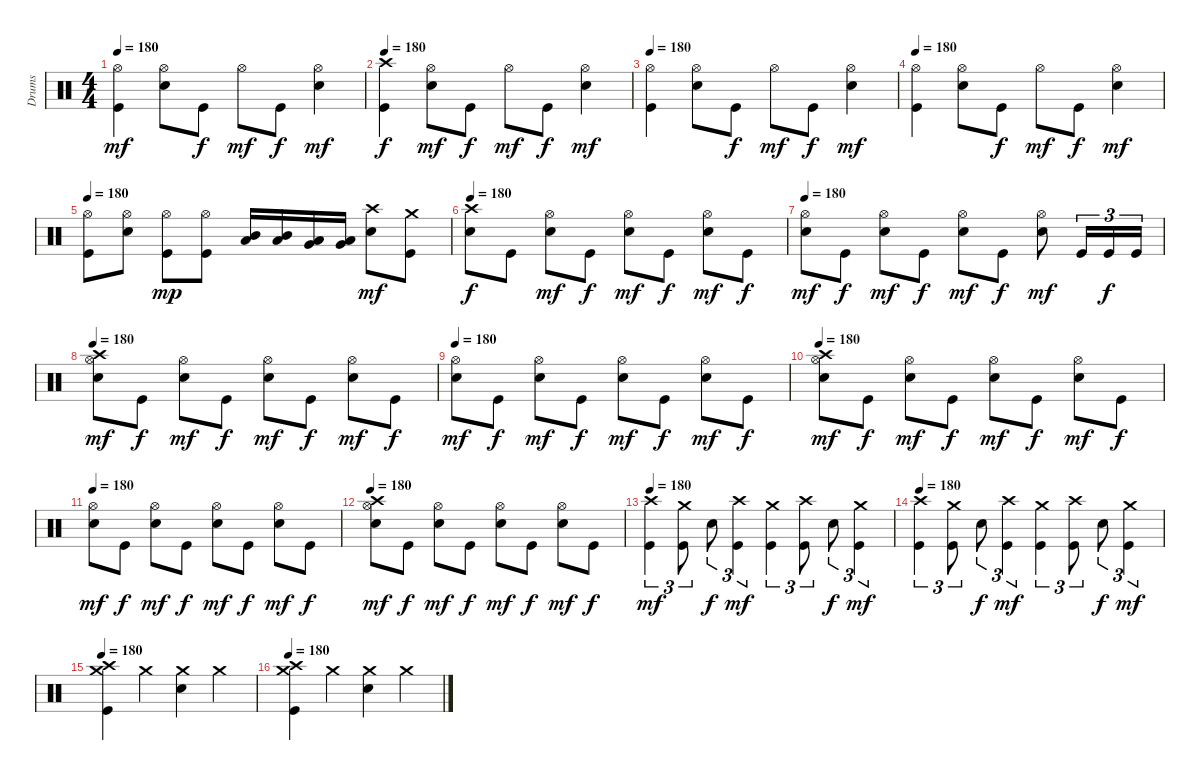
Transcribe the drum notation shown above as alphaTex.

\track ("Drums" "Drums") {instrument percussion}
\staff {score}
\articulation defaults
\ts (4 4)
\tempo 180
\clef neutral
\ks c
("Kick (hit)" "Hi-Hat (open)").4{dy mf} ("Electric Snare (hit)" "Hi-Hat (open)").8 "Kick (hit)".8{dy f} "Hi-Hat (open)".8{dy mf} "Kick (hit)".8{dy f} ("Electric Snare (hit)" "Hi-Hat (open)").4{dy mf} |
\tempo 180
("Kick (hit)" "Crash high (hit)").4{dy f} ("Electric Snare (hit)" "Hi-Hat (open)").8{dy mf} "Kick (hit)".8{dy f} "Hi-Hat (open)".8{dy mf} "Kick (hit)".8{dy f} ("Electric Snare (hit)" "Hi-Hat (open)").4{dy mf} |
\tempo 180
("Kick (hit)" "Hi-Hat (open)").4 ("Electric Snare (hit)" "Hi-Hat (open)").8 "Kick (hit)".8{dy f} "Hi-Hat (open)".8{dy mf} "Kick (hit)".8{dy f} ("Electric Snare (hit)" "Hi-Hat (open)").4{dy mf} |
\tempo 180
("Kick (hit)" "Hi-Hat (open)").4 ("Electric Snare (hit)" "Hi-Hat (open)").8 "Kick (hit)".8{dy f} "Hi-Hat (open)".8{dy mf} "Kick (hit)".8{dy f} ("Electric Snare (hit)" "Hi-Hat (open)").4{dy mf} |
\tempo 180
("Kick (hit)" "Hi-Hat (open)").8 ("Electric Snare (hit)" "Hi-Hat (open)").8 ("Kick (hit)" "Hi-Hat (open)").8{dy mp} ("Kick (hit)" "Hi-Hat (open)").8 ("Low Tom (hit)" "Mid Tom (hit)").16 ("Low Tom (hit)" "Mid Tom (hit)").16 ("Very Low Tom (hit)" "Low Tom (hit)").16 ("Very Low Tom (hit)" "Low Tom (hit)").16 ("Electric Snare (hit)" "Crash high (hit)").8{dy mf} ("Kick (hit)" "Crash medium (hit)").8 |
\tempo 180
("Electric Snare (hit)" "Crash high (hit)").8{dy f} "Kick (hit)".8 ("Electric Snare (hit)" "Hi-Hat (open)").8{dy mf} "Kick (hit)".8{dy f} ("Electric Snare (hit)" "Hi-Hat (open)").8{dy mf} "Kick (hit)".8{dy f} ("Electric Snare (hit)" "Hi-Hat (open)").8{dy mf} "Kick (hit)".8{dy f} |
\tempo 180
("Electric Snare (hit)" "Hi-Hat (open)").8{dy mf} "Kick (hit)".8{dy f} ("Electric Snare (hit)" "Hi-Hat (open)").8{dy mf} "Kick (hit)".8{dy f} ("Electric Snare (hit)" "Hi-Hat (open)").8{dy mf} "Kick (hit)".8{dy f} ("Electric Snare (hit)" "Hi-Hat (open)").8{dy mf} "Kick (hit)".16{tu (3 2)} "Kick (hit)".16{tu (3 2) dy f} "Kick (hit)".16{tu (3 2)} |
\tempo 180
("Electric Snare (hit)" "Hi-Hat (open)" "Crash high (hit)").8{dy mf} "Kick (hit)".8{dy f} ("Electric Snare (hit)" "Hi-Hat (open)").8{dy mf} "Kick (hit)".8{dy f} ("Electric Snare (hit)" "Hi-Hat (open)").8{dy mf} "Kick (hit)".8{dy f} ("Electric Snare (hit)" "Hi-Hat (open)").8{dy mf} "Kick (hit)".8{dy f} |
\tempo 180
("Electric Snare (hit)" "Hi-Hat (open)").8{dy mf} "Kick (hit)".8{dy f} ("Electric Snare (hit)" "Hi-Hat (open)").8{dy mf} "Kick (hit)".8{dy f} ("Electric Snare (hit)" "Hi-Hat (open)").8{dy mf} "Kick (hit)".8{dy f} ("Electric Snare (hit)" "Hi-Hat (open)").8{dy mf} "Kick (hit)".8{dy f} |
\tempo 180
("Electric Snare (hit)" "Hi-Hat (open)" "Crash high (hit)").8{dy mf} "Kick (hit)".8{dy f} ("Electric Snare (hit)" "Hi-Hat (open)").8{dy mf} "Kick (hit)".8{dy f} ("Electric Snare (hit)" "Hi-Hat (open)").8{dy mf} "Kick (hit)".8{dy f} ("Electric Snare (hit)" "Hi-Hat (open)").8{dy mf} "Kick (hit)".8{dy f} |
\tempo 180
("Electric Snare (hit)" "Hi-Hat (open)").8{dy mf} "Kick (hit)".8{dy f} ("Electric Snare (hit)" "Hi-Hat (open)").8{dy mf} "Kick (hit)".8{dy f} ("Electric Snare (hit)" "Hi-Hat (open)").8{dy mf} "Kick (hit)".8{dy f} ("Electric Snare (hit)" "Hi-Hat (open)").8{dy mf} "Kick (hit)".8{dy f} |
\tempo 180
("Electric Snare (hit)" "Hi-Hat (open)" "Crash high (hit)").8{dy mf} "Kick (hit)".8{dy f} ("Electric Snare (hit)" "Hi-Hat (open)").8{dy mf} "Kick (hit)".8{dy f} ("Electric Snare (hit)" "Hi-Hat (open)").8{dy mf} "Kick (hit)".8{dy f} ("Electric Snare (hit)" "Hi-Hat (open)").8{dy mf} "Kick (hit)".8{dy f} |
\tempo 180
("Kick (hit)" "Crash high (hit)").4{tu (3 2) dy mf} ("Kick (hit)" "Crash medium (hit)").8{tu (3 2)} "Electric Snare (hit)".8{tu (3 2) dy f} ("Kick (hit)" "Crash high (hit)").4{tu (3 2) dy mf} ("Kick (hit)" "Crash medium (hit)").4{tu (3 2)} ("Kick (hit)" "Crash high (hit)").8{tu (3 2)} "Electric Snare (hit)".8{tu (3 2) dy f} ("Kick (hit)" "Crash medium (hit)").4{tu (3 2) dy mf} |
\tempo 180
("Kick (hit)" "Crash high (hit)").4{tu (3 2)} ("Kick (hit)" "Crash medium (hit)").8{tu (3 2)} "Electric Snare (hit)".8{tu (3 2) dy f} ("Kick (hit)" "Crash high (hit)").4{tu (3 2) dy mf} ("Kick (hit)" "Crash medium (hit)").4{tu (3 2)} ("Kick (hit)" "Crash high (hit)").8{tu (3 2)} "Electric Snare (hit)".8{tu (3 2) dy f} ("Kick (hit)" "Crash medium (hit)").4{tu (3 2) dy mf} |
\tempo 180
("Kick (hit)" "Crash medium (hit)" "Crash high (hit)").4 "Crash medium (hit)".4 ("Electric Snare (hit)" "Crash medium (hit)").4 "Crash medium (hit)".4 |
\tempo 180
("Kick (hit)" "Crash medium (hit)" "Crash high (hit)").4 "Crash medium (hit)".4 ("Electric Snare (hit)" "Crash medium (hit)").4 "Crash medium (hit)".4
